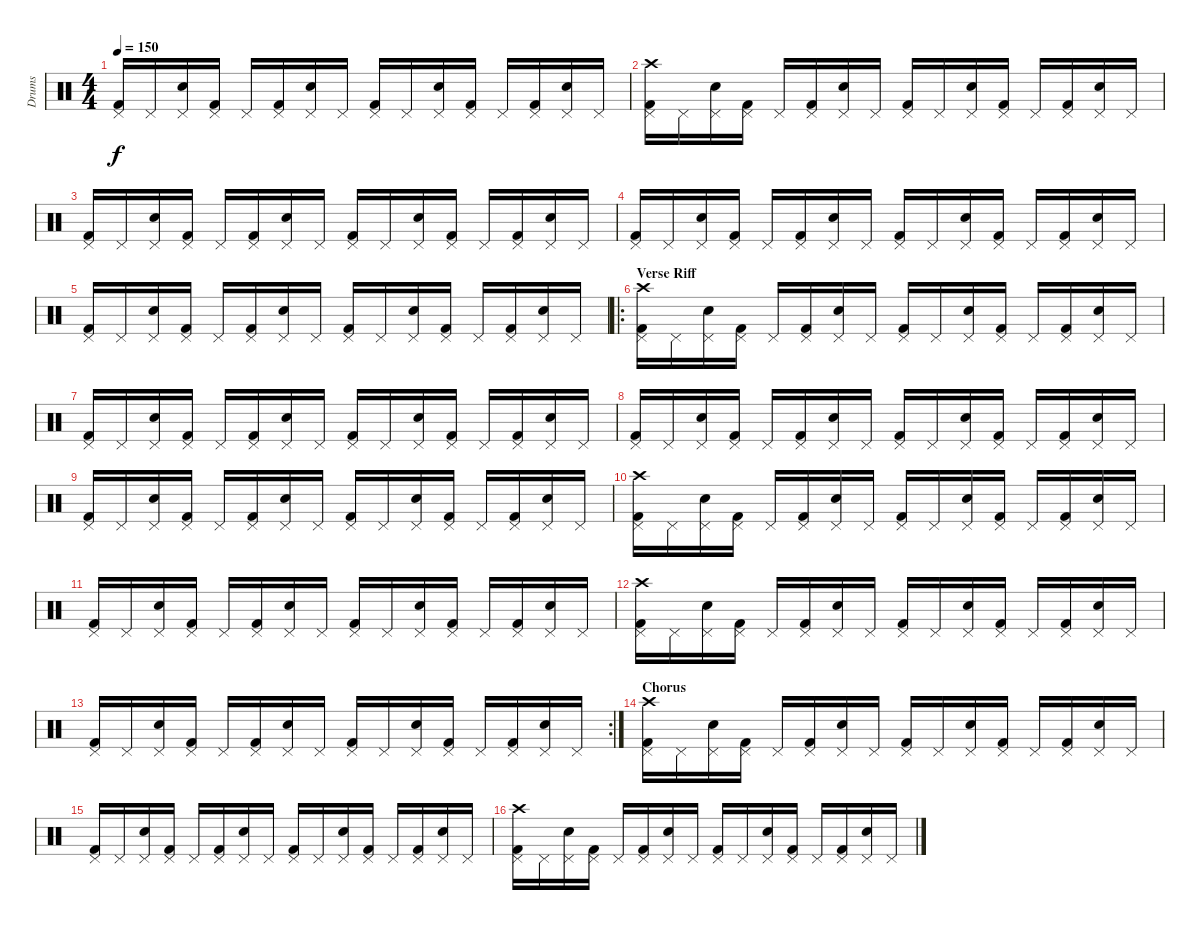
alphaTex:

\track ("Drums" "Drums") {instrument percussion}
\staff {score}
\articulation defaults
\ts (4 4)
\tempo 150
\clef neutral
\ks c
("Kick (hit) 2" "Pedal Hi-Hat (hit)").16{dy f} "Pedal Hi-Hat (hit)".16 ("Snare (hit) 2" "Pedal Hi-Hat (hit)").16 ("Kick (hit) 2" "Pedal Hi-Hat (hit)").16 "Pedal Hi-Hat (hit)".16 ("Kick (hit) 2" "Pedal Hi-Hat (hit)").16 ("Snare (hit) 2" "Pedal Hi-Hat (hit)").16 "Pedal Hi-Hat (hit)".16 ("Kick (hit) 2" "Pedal Hi-Hat (hit)").16 "Pedal Hi-Hat (hit)".16 ("Snare (hit) 2" "Pedal Hi-Hat (hit)").16 ("Kick (hit) 2" "Pedal Hi-Hat (hit)").16 "Pedal Hi-Hat (hit)".16 ("Kick (hit) 2" "Pedal Hi-Hat (hit)").16 ("Snare (hit) 2" "Pedal Hi-Hat (hit)").16 "Pedal Hi-Hat (hit)".16 |
("Kick (hit) 2" "Pedal Hi-Hat (hit)" "Crash high (hit)").16 "Pedal Hi-Hat (hit)".16 ("Snare (hit) 2" "Pedal Hi-Hat (hit)").16 ("Kick (hit) 2" "Pedal Hi-Hat (hit)").16 "Pedal Hi-Hat (hit)".16 ("Kick (hit) 2" "Pedal Hi-Hat (hit)").16 ("Snare (hit) 2" "Pedal Hi-Hat (hit)").16 "Pedal Hi-Hat (hit)".16 ("Kick (hit) 2" "Pedal Hi-Hat (hit)").16 "Pedal Hi-Hat (hit)".16 ("Snare (hit) 2" "Pedal Hi-Hat (hit)").16 ("Kick (hit) 2" "Pedal Hi-Hat (hit)").16 "Pedal Hi-Hat (hit)".16 ("Kick (hit) 2" "Pedal Hi-Hat (hit)").16 ("Snare (hit) 2" "Pedal Hi-Hat (hit)").16 "Pedal Hi-Hat (hit)".16 |
("Kick (hit) 2" "Pedal Hi-Hat (hit)").16 "Pedal Hi-Hat (hit)".16 ("Snare (hit) 2" "Pedal Hi-Hat (hit)").16 ("Kick (hit) 2" "Pedal Hi-Hat (hit)").16 "Pedal Hi-Hat (hit)".16 ("Kick (hit) 2" "Pedal Hi-Hat (hit)").16 ("Snare (hit) 2" "Pedal Hi-Hat (hit)").16 "Pedal Hi-Hat (hit)".16 ("Kick (hit) 2" "Pedal Hi-Hat (hit)").16 "Pedal Hi-Hat (hit)".16 ("Snare (hit) 2" "Pedal Hi-Hat (hit)").16 ("Kick (hit) 2" "Pedal Hi-Hat (hit)").16 "Pedal Hi-Hat (hit)".16 ("Kick (hit) 2" "Pedal Hi-Hat (hit)").16 ("Snare (hit) 2" "Pedal Hi-Hat (hit)").16 "Pedal Hi-Hat (hit)".16 |
("Kick (hit) 2" "Pedal Hi-Hat (hit)").16 "Pedal Hi-Hat (hit)".16 ("Snare (hit) 2" "Pedal Hi-Hat (hit)").16 ("Kick (hit) 2" "Pedal Hi-Hat (hit)").16 "Pedal Hi-Hat (hit)".16 ("Kick (hit) 2" "Pedal Hi-Hat (hit)").16 ("Snare (hit) 2" "Pedal Hi-Hat (hit)").16 "Pedal Hi-Hat (hit)".16 ("Kick (hit) 2" "Pedal Hi-Hat (hit)").16 "Pedal Hi-Hat (hit)".16 ("Snare (hit) 2" "Pedal Hi-Hat (hit)").16 ("Kick (hit) 2" "Pedal Hi-Hat (hit)").16 "Pedal Hi-Hat (hit)".16 ("Kick (hit) 2" "Pedal Hi-Hat (hit)").16 ("Snare (hit) 2" "Pedal Hi-Hat (hit)").16 "Pedal Hi-Hat (hit)".16 |
("Kick (hit) 2" "Pedal Hi-Hat (hit)").16 "Pedal Hi-Hat (hit)".16 ("Snare (hit) 2" "Pedal Hi-Hat (hit)").16 ("Kick (hit) 2" "Pedal Hi-Hat (hit)").16 "Pedal Hi-Hat (hit)".16 ("Kick (hit) 2" "Pedal Hi-Hat (hit)").16 ("Snare (hit) 2" "Pedal Hi-Hat (hit)").16 "Pedal Hi-Hat (hit)".16 ("Kick (hit) 2" "Pedal Hi-Hat (hit)").16 "Pedal Hi-Hat (hit)".16 ("Snare (hit) 2" "Pedal Hi-Hat (hit)").16 ("Kick (hit) 2" "Pedal Hi-Hat (hit)").16 "Pedal Hi-Hat (hit)".16 ("Kick (hit) 2" "Pedal Hi-Hat (hit)").16 ("Snare (hit) 2" "Pedal Hi-Hat (hit)").16 "Pedal Hi-Hat (hit)".16 |
\ro
\section ("" "Verse Riff")
("Kick (hit) 2" "Pedal Hi-Hat (hit)" "Crash high (hit)").16 "Pedal Hi-Hat (hit)".16 ("Snare (hit) 2" "Pedal Hi-Hat (hit)").16 ("Kick (hit) 2" "Pedal Hi-Hat (hit)").16 "Pedal Hi-Hat (hit)".16 ("Kick (hit) 2" "Pedal Hi-Hat (hit)").16 ("Snare (hit) 2" "Pedal Hi-Hat (hit)").16 "Pedal Hi-Hat (hit)".16 ("Kick (hit) 2" "Pedal Hi-Hat (hit)").16 "Pedal Hi-Hat (hit)".16 ("Snare (hit) 2" "Pedal Hi-Hat (hit)").16 ("Kick (hit) 2" "Pedal Hi-Hat (hit)").16 "Pedal Hi-Hat (hit)".16 ("Kick (hit) 2" "Pedal Hi-Hat (hit)").16 ("Snare (hit) 2" "Pedal Hi-Hat (hit)").16 "Pedal Hi-Hat (hit)".16 |
("Kick (hit) 2" "Pedal Hi-Hat (hit)").16 "Pedal Hi-Hat (hit)".16 ("Snare (hit) 2" "Pedal Hi-Hat (hit)").16 ("Kick (hit) 2" "Pedal Hi-Hat (hit)").16 "Pedal Hi-Hat (hit)".16 ("Kick (hit) 2" "Pedal Hi-Hat (hit)").16 ("Snare (hit) 2" "Pedal Hi-Hat (hit)").16 "Pedal Hi-Hat (hit)".16 ("Kick (hit) 2" "Pedal Hi-Hat (hit)").16 "Pedal Hi-Hat (hit)".16 ("Snare (hit) 2" "Pedal Hi-Hat (hit)").16 ("Kick (hit) 2" "Pedal Hi-Hat (hit)").16 "Pedal Hi-Hat (hit)".16 ("Kick (hit) 2" "Pedal Hi-Hat (hit)").16 ("Snare (hit) 2" "Pedal Hi-Hat (hit)").16 "Pedal Hi-Hat (hit)".16 |
("Kick (hit) 2" "Pedal Hi-Hat (hit)").16 "Pedal Hi-Hat (hit)".16 ("Snare (hit) 2" "Pedal Hi-Hat (hit)").16 ("Kick (hit) 2" "Pedal Hi-Hat (hit)").16 "Pedal Hi-Hat (hit)".16 ("Kick (hit) 2" "Pedal Hi-Hat (hit)").16 ("Snare (hit) 2" "Pedal Hi-Hat (hit)").16 "Pedal Hi-Hat (hit)".16 ("Kick (hit) 2" "Pedal Hi-Hat (hit)").16 "Pedal Hi-Hat (hit)".16 ("Snare (hit) 2" "Pedal Hi-Hat (hit)").16 ("Kick (hit) 2" "Pedal Hi-Hat (hit)").16 "Pedal Hi-Hat (hit)".16 ("Kick (hit) 2" "Pedal Hi-Hat (hit)").16 ("Snare (hit) 2" "Pedal Hi-Hat (hit)").16 "Pedal Hi-Hat (hit)".16 |
("Kick (hit) 2" "Pedal Hi-Hat (hit)").16 "Pedal Hi-Hat (hit)".16 ("Snare (hit) 2" "Pedal Hi-Hat (hit)").16 ("Kick (hit) 2" "Pedal Hi-Hat (hit)").16 "Pedal Hi-Hat (hit)".16 ("Kick (hit) 2" "Pedal Hi-Hat (hit)").16 ("Snare (hit) 2" "Pedal Hi-Hat (hit)").16 "Pedal Hi-Hat (hit)".16 ("Kick (hit) 2" "Pedal Hi-Hat (hit)").16 "Pedal Hi-Hat (hit)".16 ("Snare (hit) 2" "Pedal Hi-Hat (hit)").16 ("Kick (hit) 2" "Pedal Hi-Hat (hit)").16 "Pedal Hi-Hat (hit)".16 ("Kick (hit) 2" "Pedal Hi-Hat (hit)").16 ("Snare (hit) 2" "Pedal Hi-Hat (hit)").16 "Pedal Hi-Hat (hit)".16 |
("Kick (hit) 2" "Pedal Hi-Hat (hit)" "Crash high (hit)").16 "Pedal Hi-Hat (hit)".16 ("Snare (hit) 2" "Pedal Hi-Hat (hit)").16 ("Kick (hit) 2" "Pedal Hi-Hat (hit)").16 "Pedal Hi-Hat (hit)".16 ("Kick (hit) 2" "Pedal Hi-Hat (hit)").16 ("Snare (hit) 2" "Pedal Hi-Hat (hit)").16 "Pedal Hi-Hat (hit)".16 ("Kick (hit) 2" "Pedal Hi-Hat (hit)").16 "Pedal Hi-Hat (hit)".16 ("Snare (hit) 2" "Pedal Hi-Hat (hit)").16 ("Kick (hit) 2" "Pedal Hi-Hat (hit)").16 "Pedal Hi-Hat (hit)".16 ("Kick (hit) 2" "Pedal Hi-Hat (hit)").16 ("Snare (hit) 2" "Pedal Hi-Hat (hit)").16 "Pedal Hi-Hat (hit)".16 |
("Kick (hit) 2" "Pedal Hi-Hat (hit)").16 "Pedal Hi-Hat (hit)".16 ("Snare (hit) 2" "Pedal Hi-Hat (hit)").16 ("Kick (hit) 2" "Pedal Hi-Hat (hit)").16 "Pedal Hi-Hat (hit)".16 ("Kick (hit) 2" "Pedal Hi-Hat (hit)").16 ("Snare (hit) 2" "Pedal Hi-Hat (hit)").16 "Pedal Hi-Hat (hit)".16 ("Kick (hit) 2" "Pedal Hi-Hat (hit)").16 "Pedal Hi-Hat (hit)".16 ("Snare (hit) 2" "Pedal Hi-Hat (hit)").16 ("Kick (hit) 2" "Pedal Hi-Hat (hit)").16 "Pedal Hi-Hat (hit)".16 ("Kick (hit) 2" "Pedal Hi-Hat (hit)").16 ("Snare (hit) 2" "Pedal Hi-Hat (hit)").16 "Pedal Hi-Hat (hit)".16 |
("Kick (hit) 2" "Pedal Hi-Hat (hit)" "Crash high (hit)").16 "Pedal Hi-Hat (hit)".16 ("Snare (hit) 2" "Pedal Hi-Hat (hit)").16 ("Kick (hit) 2" "Pedal Hi-Hat (hit)").16 "Pedal Hi-Hat (hit)".16 ("Kick (hit) 2" "Pedal Hi-Hat (hit)").16 ("Snare (hit) 2" "Pedal Hi-Hat (hit)").16 "Pedal Hi-Hat (hit)".16 ("Kick (hit) 2" "Pedal Hi-Hat (hit)").16 "Pedal Hi-Hat (hit)".16 ("Snare (hit) 2" "Pedal Hi-Hat (hit)").16 ("Kick (hit) 2" "Pedal Hi-Hat (hit)").16 "Pedal Hi-Hat (hit)".16 ("Kick (hit) 2" "Pedal Hi-Hat (hit)").16 ("Snare (hit) 2" "Pedal Hi-Hat (hit)").16 "Pedal Hi-Hat (hit)".16 |
\rc 2
("Kick (hit) 2" "Pedal Hi-Hat (hit)").16 "Pedal Hi-Hat (hit)".16 ("Snare (hit) 2" "Pedal Hi-Hat (hit)").16 ("Kick (hit) 2" "Pedal Hi-Hat (hit)").16 "Pedal Hi-Hat (hit)".16 ("Kick (hit) 2" "Pedal Hi-Hat (hit)").16 ("Snare (hit) 2" "Pedal Hi-Hat (hit)").16 "Pedal Hi-Hat (hit)".16 ("Kick (hit) 2" "Pedal Hi-Hat (hit)").16 "Pedal Hi-Hat (hit)".16 ("Snare (hit) 2" "Pedal Hi-Hat (hit)").16 ("Kick (hit) 2" "Pedal Hi-Hat (hit)").16 "Pedal Hi-Hat (hit)".16 ("Kick (hit) 2" "Pedal Hi-Hat (hit)").16 ("Snare (hit) 2" "Pedal Hi-Hat (hit)").16 "Pedal Hi-Hat (hit)".16 |
\section ("" "Chorus")
("Kick (hit) 2" "Pedal Hi-Hat (hit)" "Crash high (hit)").16 "Pedal Hi-Hat (hit)".16 ("Snare (hit) 2" "Pedal Hi-Hat (hit)").16 ("Kick (hit) 2" "Pedal Hi-Hat (hit)").16 "Pedal Hi-Hat (hit)".16 ("Kick (hit) 2" "Pedal Hi-Hat (hit)").16 ("Snare (hit) 2" "Pedal Hi-Hat (hit)").16 "Pedal Hi-Hat (hit)".16 ("Kick (hit) 2" "Pedal Hi-Hat (hit)").16 "Pedal Hi-Hat (hit)".16 ("Snare (hit) 2" "Pedal Hi-Hat (hit)").16 ("Kick (hit) 2" "Pedal Hi-Hat (hit)").16 "Pedal Hi-Hat (hit)".16 ("Kick (hit) 2" "Pedal Hi-Hat (hit)").16 ("Snare (hit) 2" "Pedal Hi-Hat (hit)").16 "Pedal Hi-Hat (hit)".16 |
("Kick (hit) 2" "Pedal Hi-Hat (hit)").16 "Pedal Hi-Hat (hit)".16 ("Snare (hit) 2" "Pedal Hi-Hat (hit)").16 ("Kick (hit) 2" "Pedal Hi-Hat (hit)").16 "Pedal Hi-Hat (hit)".16 ("Kick (hit) 2" "Pedal Hi-Hat (hit)").16 ("Snare (hit) 2" "Pedal Hi-Hat (hit)").16 "Pedal Hi-Hat (hit)".16 ("Kick (hit) 2" "Pedal Hi-Hat (hit)").16 "Pedal Hi-Hat (hit)".16 ("Snare (hit) 2" "Pedal Hi-Hat (hit)").16 ("Kick (hit) 2" "Pedal Hi-Hat (hit)").16 "Pedal Hi-Hat (hit)".16 ("Kick (hit) 2" "Pedal Hi-Hat (hit)").16 ("Snare (hit) 2" "Pedal Hi-Hat (hit)").16 "Pedal Hi-Hat (hit)".16 |
("Kick (hit) 2" "Pedal Hi-Hat (hit)" "Crash high (hit)").16 "Pedal Hi-Hat (hit)".16 ("Snare (hit) 2" "Pedal Hi-Hat (hit)").16 ("Kick (hit) 2" "Pedal Hi-Hat (hit)").16 "Pedal Hi-Hat (hit)".16 ("Kick (hit) 2" "Pedal Hi-Hat (hit)").16 ("Snare (hit) 2" "Pedal Hi-Hat (hit)").16 "Pedal Hi-Hat (hit)".16 ("Kick (hit) 2" "Pedal Hi-Hat (hit)").16 "Pedal Hi-Hat (hit)".16 ("Snare (hit) 2" "Pedal Hi-Hat (hit)").16 ("Kick (hit) 2" "Pedal Hi-Hat (hit)").16 "Pedal Hi-Hat (hit)".16 ("Kick (hit) 2" "Pedal Hi-Hat (hit)").16 ("Snare (hit) 2" "Pedal Hi-Hat (hit)").16 "Pedal Hi-Hat (hit)".16
